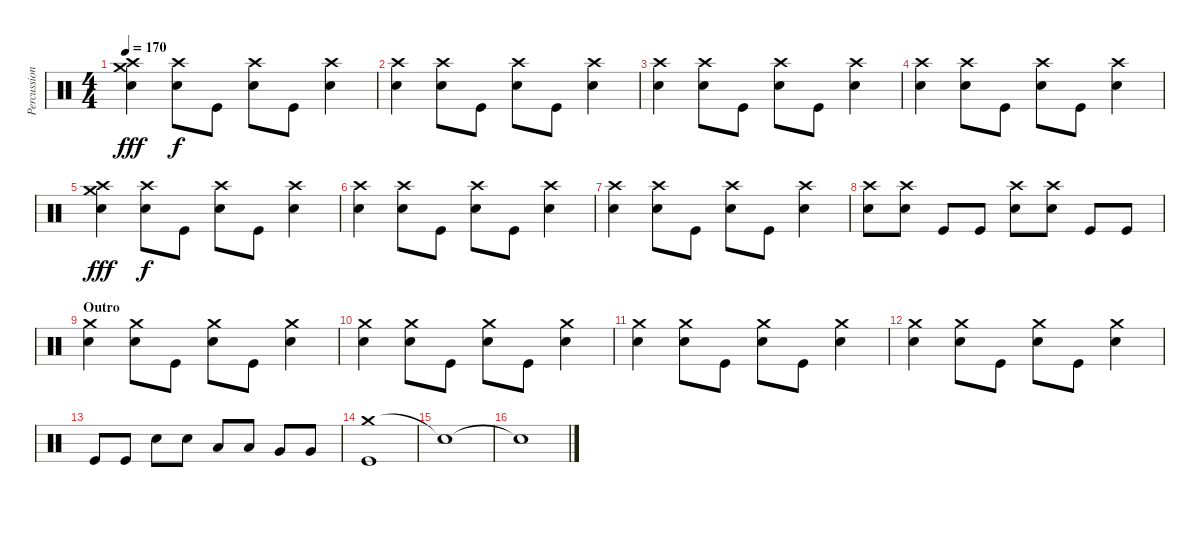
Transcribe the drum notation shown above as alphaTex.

\track ("Percussions" "Percussion") {instrument percussion}
\staff {score}
\articulation defaults
\ts (4 4)
\tempo 170
\clef neutral
\ks c
("Crash high (hit)" "Crash medium (hit)" "Electric Snare (hit)").4{dy fff} ("Crash high (hit)" "Electric Snare (hit)").8{dy f} "Kick (hit)".8 ("Crash high (hit)" "Electric Snare (hit)").8 "Kick (hit)".8 ("Crash high (hit)" "Electric Snare (hit)").4 |
("Crash high (hit)" "Electric Snare (hit)").4 ("Crash high (hit)" "Electric Snare (hit)").8 "Kick (hit)".8 ("Crash high (hit)" "Electric Snare (hit)").8 "Kick (hit)".8 ("Crash high (hit)" "Electric Snare (hit)").4 |
("Crash high (hit)" "Electric Snare (hit)").4 ("Crash high (hit)" "Electric Snare (hit)").8 "Kick (hit)".8 ("Crash high (hit)" "Electric Snare (hit)").8 "Kick (hit)".8 ("Crash high (hit)" "Electric Snare (hit)").4 |
("Crash high (hit)" "Electric Snare (hit)").4 ("Crash high (hit)" "Electric Snare (hit)").8 "Kick (hit)".8 ("Crash high (hit)" "Electric Snare (hit)").8 "Kick (hit)".8 ("Crash high (hit)" "Electric Snare (hit)").4 |
("Crash high (hit)" "Crash medium (hit)" "Electric Snare (hit)").4{dy fff} ("Crash high (hit)" "Electric Snare (hit)").8{dy f} "Kick (hit)".8 ("Crash high (hit)" "Electric Snare (hit)").8 "Kick (hit)".8 ("Crash high (hit)" "Electric Snare (hit)").4 |
("Crash high (hit)" "Electric Snare (hit)").4 ("Crash high (hit)" "Electric Snare (hit)").8 "Kick (hit)".8 ("Crash high (hit)" "Electric Snare (hit)").8 "Kick (hit)".8 ("Crash high (hit)" "Electric Snare (hit)").4 |
("Crash high (hit)" "Electric Snare (hit)").4 ("Crash high (hit)" "Electric Snare (hit)").8 "Kick (hit)".8 ("Crash high (hit)" "Electric Snare (hit)").8 "Kick (hit)".8 ("Crash high (hit)" "Electric Snare (hit)").4 |
("Crash high (hit)" "Electric Snare (hit)").8 ("Crash high (hit)" "Electric Snare (hit)").8 "Kick (hit)".8 "Kick (hit)".8 ("Crash high (hit)" "Electric Snare (hit)").8 ("Crash high (hit)" "Electric Snare (hit)").8 "Kick (hit)".8 "Kick (hit)".8 |
\section ("" "Outro")
("Crash medium (hit)" "Electric Snare (hit)").4 ("Crash medium (hit)" "Electric Snare (hit)").8 "Kick (hit)".8 ("Crash medium (hit)" "Electric Snare (hit)").8 "Kick (hit)".8 ("Crash medium (hit)" "Electric Snare (hit)").4 |
("Crash medium (hit)" "Electric Snare (hit)").4 ("Crash medium (hit)" "Electric Snare (hit)").8 "Kick (hit)".8 ("Crash medium (hit)" "Electric Snare (hit)").8 "Kick (hit)".8 ("Crash medium (hit)" "Electric Snare (hit)").4 |
("Crash medium (hit)" "Electric Snare (hit)").4 ("Crash medium (hit)" "Electric Snare (hit)").8 "Kick (hit)".8 ("Crash medium (hit)" "Electric Snare (hit)").8 "Kick (hit)".8 ("Crash medium (hit)" "Electric Snare (hit)").4 |
("Crash medium (hit)" "Electric Snare (hit)").4 ("Crash medium (hit)" "Electric Snare (hit)").8 "Kick (hit)".8 ("Crash medium (hit)" "Electric Snare (hit)").8 "Kick (hit)".8 ("Crash medium (hit)" "Electric Snare (hit)").4 |
"Kick (hit)".8 "Kick (hit)".8 "Electric Snare (hit)".8 "Electric Snare (hit)".8 "Low Tom (hit)".8 "Low Tom (hit)".8 "Very Low Tom (hit)".8 "Very Low Tom (hit)".8 |
("Crash medium (hit)" "Kick (hit)").1 |
"Snare (hit)"{t}.1 |
"Snare (hit)"{t}.1
